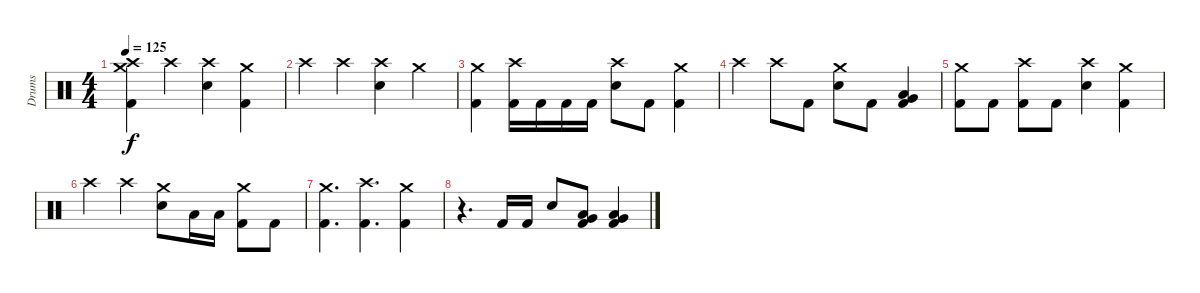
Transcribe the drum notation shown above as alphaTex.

\track ("Drums" "Drums") {instrument percussion}
\staff {score}
\articulation defaults
\ts (4 4)
\tempo 125
\clef neutral
\ks c
("Crash medium (hit)" "Crash high (hit)" "Kick (hit) 2").4{dy f} "Crash high (hit)".4 ("Crash high (hit)" "Snare (hit) 2").4 ("Crash medium (hit)" "Kick (hit) 2").4 |
"Crash high (hit)".4 "Crash high (hit)".4 ("Crash high (hit)" "Snare (hit) 2").4 "Crash medium (hit)".4 |
("Crash medium (hit)" "Kick (hit) 2").4 ("Crash high (hit)" "Kick (hit) 2").16 "Kick (hit) 2".16 "Kick (hit) 2".16 "Kick (hit) 2".16 ("Crash high (hit)" "Snare (hit) 2").8 "Kick (hit) 2".8 ("Crash medium (hit)" "Kick (hit) 2").4 |
"Crash high (hit)".4 "Crash high (hit)".8 "Kick (hit) 2".8 ("Crash medium (hit)" "Snare (hit) 2").8 "Kick (hit) 2".8 ("Low Floor Tom (hit)" "Very Low Tom (hit)" "Kick (hit) 2").4 |
("Crash medium (hit)" "Kick (hit) 2").8 "Kick (hit) 2".8 ("Crash high (hit)" "Kick (hit) 2").8 "Kick (hit) 2".8 ("Crash high (hit)" "Snare (hit) 2").4 ("Crash medium (hit)" "Kick (hit) 2").4 |
"Crash high (hit)".4 "Crash high (hit)".4 ("Crash medium (hit)" "Snare (hit) 2").8 "Low Tom (hit)".16 "Low Tom (hit)".16 ("Crash medium (hit)" "Kick (hit) 2").8 "Kick (hit) 2".8 |
("Crash medium (hit)" "Kick (hit) 2").4{d} ("Crash high (hit)" "Kick (hit) 2").4{d} ("Crash medium (hit)" "Kick (hit) 2").4 |
r.4{d} "Kick (hit) 2".16 "Kick (hit) 2".16 "Snare (hit) 2".8 ("Low Floor Tom (hit)" "Very Low Tom (hit)" "Kick (hit) 2").8 ("Low Floor Tom (hit)" "Very Low Tom (hit)" "Kick (hit) 2").4
